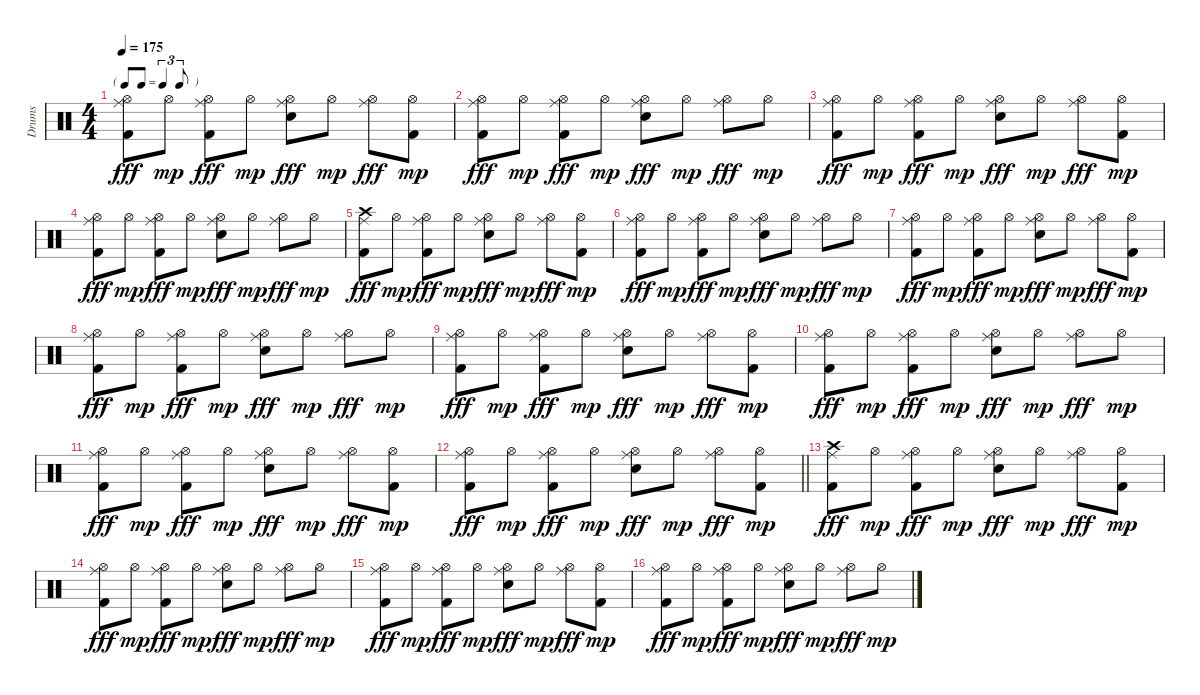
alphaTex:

\track ("Drums" "Drums") {instrument percussion}
\staff {score}
\articulation defaults
\ts (4 4)
\tf triplet8th
\tempo 175
\clef neutral
\ks c
("Hi-Hat (open)" "Ride (middle)" "Kick (hit) 2").8{dy fff} "Hi-Hat (open)".8{dy mp} ("Hi-Hat (open)" "Ride (middle)" "Kick (hit) 2").8{dy fff} "Hi-Hat (open)".8{dy mp} ("Hi-Hat (open)" "Ride (middle)" "Electric Snare (hit)").8{dy fff} "Hi-Hat (open)".8{dy mp} ("Hi-Hat (open)" "Ride (middle)").8{dy fff} ("Hi-Hat (open)" "Kick (hit) 2").8{dy mp} |
("Hi-Hat (open)" "Ride (middle)" "Kick (hit) 2").8{dy fff} "Hi-Hat (open)".8{dy mp} ("Hi-Hat (open)" "Ride (middle)" "Kick (hit) 2").8{dy fff} "Hi-Hat (open)".8{dy mp} ("Hi-Hat (open)" "Ride (middle)" "Electric Snare (hit)").8{dy fff} "Hi-Hat (open)".8{dy mp} ("Hi-Hat (open)" "Ride (middle)").8{dy fff} "Hi-Hat (open)".8{dy mp} |
("Hi-Hat (open)" "Ride (middle)" "Kick (hit) 2").8{dy fff} "Hi-Hat (open)".8{dy mp} ("Hi-Hat (open)" "Ride (middle)" "Kick (hit) 2").8{dy fff} "Hi-Hat (open)".8{dy mp} ("Hi-Hat (open)" "Ride (middle)" "Electric Snare (hit)").8{dy fff} "Hi-Hat (open)".8{dy mp} ("Hi-Hat (open)" "Ride (middle)").8{dy fff} ("Hi-Hat (open)" "Kick (hit) 2").8{dy mp} |
("Hi-Hat (open)" "Ride (middle)" "Kick (hit) 2").8{dy fff} "Hi-Hat (open)".8{dy mp} ("Hi-Hat (open)" "Ride (middle)" "Kick (hit) 2").8{dy fff} "Hi-Hat (open)".8{dy mp} ("Hi-Hat (open)" "Ride (middle)" "Electric Snare (hit)").8{dy fff} "Hi-Hat (open)".8{dy mp} ("Hi-Hat (open)" "Ride (middle)").8{dy fff} "Hi-Hat (open)".8{dy mp} |
("Crash high (hit)" "Ride (middle)" "Kick (hit) 2").8{dy fff} "Hi-Hat (open)".8{dy mp} ("Hi-Hat (open)" "Ride (middle)" "Kick (hit) 2").8{dy fff} "Hi-Hat (open)".8{dy mp} ("Hi-Hat (open)" "Ride (middle)" "Electric Snare (hit)").8{dy fff} "Hi-Hat (open)".8{dy mp} ("Hi-Hat (open)" "Ride (middle)").8{dy fff} ("Hi-Hat (open)" "Kick (hit) 2").8{dy mp} |
("Hi-Hat (open)" "Ride (middle)" "Kick (hit) 2").8{dy fff} "Hi-Hat (open)".8{dy mp} ("Hi-Hat (open)" "Ride (middle)" "Kick (hit) 2").8{dy fff} "Hi-Hat (open)".8{dy mp} ("Hi-Hat (open)" "Ride (middle)" "Electric Snare (hit)").8{dy fff} "Hi-Hat (open)".8{dy mp} ("Hi-Hat (open)" "Ride (middle)").8{dy fff} "Hi-Hat (open)".8{dy mp} |
("Hi-Hat (open)" "Ride (middle)" "Kick (hit) 2").8{dy fff} "Hi-Hat (open)".8{dy mp} ("Hi-Hat (open)" "Ride (middle)" "Kick (hit) 2").8{dy fff} "Hi-Hat (open)".8{dy mp} ("Hi-Hat (open)" "Ride (middle)" "Electric Snare (hit)").8{dy fff} "Hi-Hat (open)".8{dy mp} ("Hi-Hat (open)" "Ride (middle)").8{dy fff} ("Hi-Hat (open)" "Kick (hit) 2").8{dy mp} |
("Hi-Hat (open)" "Ride (middle)" "Kick (hit) 2").8{dy fff} "Hi-Hat (open)".8{dy mp} ("Hi-Hat (open)" "Ride (middle)" "Kick (hit) 2").8{dy fff} "Hi-Hat (open)".8{dy mp} ("Hi-Hat (open)" "Ride (middle)" "Electric Snare (hit)").8{dy fff} "Hi-Hat (open)".8{dy mp} ("Hi-Hat (open)" "Ride (middle)").8{dy fff} "Hi-Hat (open)".8{dy mp} |
("Hi-Hat (open)" "Ride (middle)" "Kick (hit) 2").8{dy fff} "Hi-Hat (open)".8{dy mp} ("Hi-Hat (open)" "Ride (middle)" "Kick (hit) 2").8{dy fff} "Hi-Hat (open)".8{dy mp} ("Hi-Hat (open)" "Ride (middle)" "Electric Snare (hit)").8{dy fff} "Hi-Hat (open)".8{dy mp} ("Hi-Hat (open)" "Ride (middle)").8{dy fff} ("Hi-Hat (open)" "Kick (hit) 2").8{dy mp} |
("Hi-Hat (open)" "Ride (middle)" "Kick (hit) 2").8{dy fff} "Hi-Hat (open)".8{dy mp} ("Hi-Hat (open)" "Ride (middle)" "Kick (hit) 2").8{dy fff} "Hi-Hat (open)".8{dy mp} ("Hi-Hat (open)" "Ride (middle)" "Electric Snare (hit)").8{dy fff} "Hi-Hat (open)".8{dy mp} ("Hi-Hat (open)" "Ride (middle)").8{dy fff} "Hi-Hat (open)".8{dy mp} |
("Hi-Hat (open)" "Ride (middle)" "Kick (hit) 2").8{dy fff} "Hi-Hat (open)".8{dy mp} ("Hi-Hat (open)" "Ride (middle)" "Kick (hit) 2").8{dy fff} "Hi-Hat (open)".8{dy mp} ("Hi-Hat (open)" "Ride (middle)" "Electric Snare (hit)").8{dy fff} "Hi-Hat (open)".8{dy mp} ("Hi-Hat (open)" "Ride (middle)").8{dy fff} ("Hi-Hat (open)" "Kick (hit) 2").8{dy mp} |
\barLineRight lightlight
("Hi-Hat (open)" "Ride (middle)" "Kick (hit) 2").8{dy fff} "Hi-Hat (open)".8{dy mp} ("Hi-Hat (open)" "Ride (middle)" "Kick (hit) 2").8{dy fff} "Hi-Hat (open)".8{dy mp} ("Hi-Hat (open)" "Ride (middle)" "Electric Snare (hit)").8{dy fff} "Hi-Hat (open)".8{dy mp} ("Hi-Hat (open)" "Ride (middle)").8{dy fff} ("Hi-Hat (open)" "Kick (hit) 2").8{dy mp} |
("Crash high (hit)" "Ride (middle)" "Kick (hit) 2").8{dy fff} "Hi-Hat (open)".8{dy mp} ("Hi-Hat (open)" "Ride (middle)" "Kick (hit) 2").8{dy fff} "Hi-Hat (open)".8{dy mp} ("Hi-Hat (open)" "Ride (middle)" "Electric Snare (hit)").8{dy fff} "Hi-Hat (open)".8{dy mp} ("Hi-Hat (open)" "Ride (middle)").8{dy fff} ("Hi-Hat (open)" "Kick (hit) 2").8{dy mp} |
("Hi-Hat (open)" "Ride (middle)" "Kick (hit) 2").8{dy fff} "Hi-Hat (open)".8{dy mp} ("Hi-Hat (open)" "Ride (middle)" "Kick (hit) 2").8{dy fff} "Hi-Hat (open)".8{dy mp} ("Hi-Hat (open)" "Ride (middle)" "Electric Snare (hit)").8{dy fff} "Hi-Hat (open)".8{dy mp} ("Hi-Hat (open)" "Ride (middle)").8{dy fff} "Hi-Hat (open)".8{dy mp} |
("Hi-Hat (open)" "Ride (middle)" "Kick (hit) 2").8{dy fff} "Hi-Hat (open)".8{dy mp} ("Hi-Hat (open)" "Ride (middle)" "Kick (hit) 2").8{dy fff} "Hi-Hat (open)".8{dy mp} ("Hi-Hat (open)" "Ride (middle)" "Electric Snare (hit)").8{dy fff} "Hi-Hat (open)".8{dy mp} ("Hi-Hat (open)" "Ride (middle)").8{dy fff} ("Hi-Hat (open)" "Kick (hit) 2").8{dy mp} |
("Hi-Hat (open)" "Ride (middle)" "Kick (hit) 2").8{dy fff} "Hi-Hat (open)".8{dy mp} ("Hi-Hat (open)" "Ride (middle)" "Kick (hit) 2").8{dy fff} "Hi-Hat (open)".8{dy mp} ("Hi-Hat (open)" "Ride (middle)" "Electric Snare (hit)").8{dy fff} "Hi-Hat (open)".8{dy mp} ("Hi-Hat (open)" "Ride (middle)").8{dy fff} "Hi-Hat (open)".8{dy mp}
